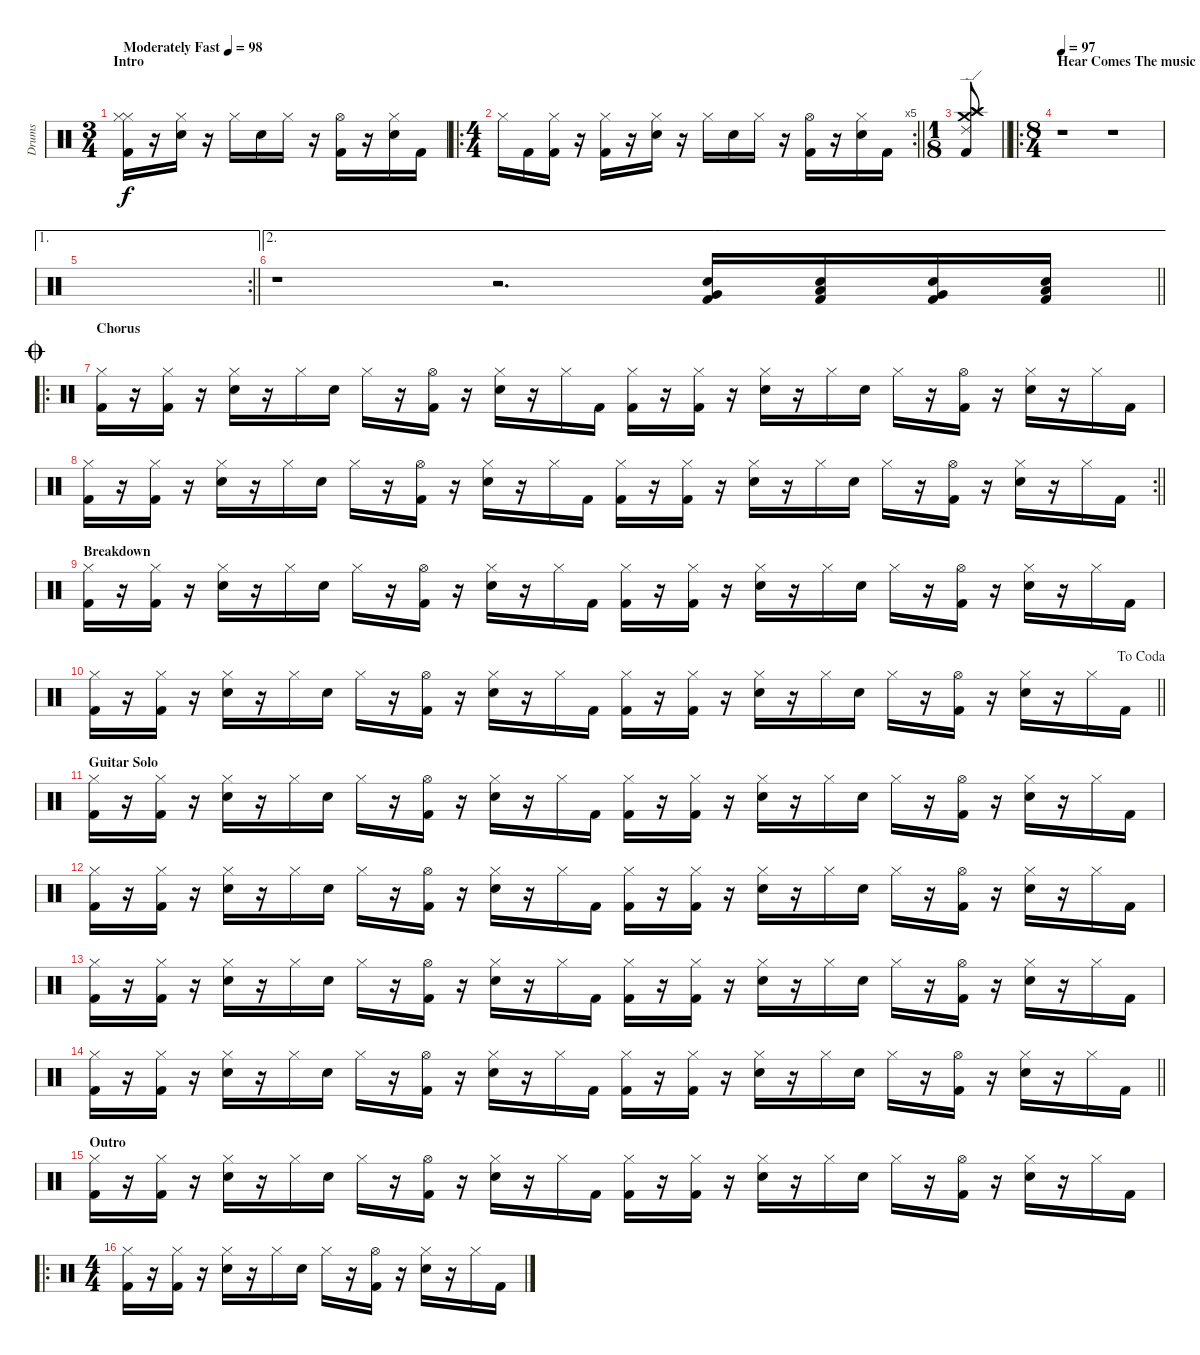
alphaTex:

\track ("Drums" "Drums") {instrument percussion}
\staff {score}
\articulation defaults
\ts (3 4)
\section ("" "Intro")
\tempo (98 "Moderately Fast")
\clef neutral
\ks c
("Kick (hit) 2" "Hi-Hat (closed)" "Hi-Hat (closed)").16{dy f} r.16 ("Electric Snare (hit)" "Hi-Hat (closed)").16 r.16 "Hi-Hat (closed)".16 "Electric Snare (hit)".16 "Hi-Hat (closed)".16 r.16 ("Kick (hit) 2" "Hi-Hat (open)").16 r.16 ("Electric Snare (hit)" "Hi-Hat (closed)").16 "Kick (hit) 2".16 |
\ro
\rc 5
\ts (4 4)
\barLineRight lightlight "Hi-Hat (closed)".16 "Kick (hit) 2".16
("Kick (hit) 2" "Hi-Hat (closed)").16 r.16 ("Kick (hit) 2" "Hi-Hat (closed)").16 r.16 ("Electric Snare (hit)" "Hi-Hat (closed)").16 r.16 "Hi-Hat (closed)".16 "Electric Snare (hit)".16 "Hi-Hat (closed)".16 r.16 ("Kick (hit) 2" "Hi-Hat (open)").16 r.16 ("Electric Snare (hit)" "Hi-Hat (closed)").16 "Kick (hit) 2".16 |
\ts (1 8)
\barLineRight lightlight
("Kick (hit) 2" "Crash high (hit)" "Crash medium (hit)" "Splash (hit)" "Ride (edge) 2").8 |
\ro
\ts (8 4)
\section ("" "Hear Comes The music")
\tempo 97
r.1 r.1 |
\ae 1
\rc 2
\barLineRight lightlight
|
\ae 2
\barLineRight lightlight
r.1 r.2{d} ("Kick (hit) 2" "Electric Snare (hit)" "Very Low Tom (hit)").16 ("Kick (hit) 2" "Electric Snare (hit)" "Low Tom (hit)").16 ("Kick (hit) 2" "Electric Snare (hit)" "Very Low Tom (hit)").16 ("Kick (hit) 2" "Electric Snare (hit)" "Low Tom (hit)").16 |
\ro
\section ("" "Chorus")
\jump coda
("Kick (hit) 2" "Hi-Hat (closed)").16 r.16 ("Kick (hit) 2" "Hi-Hat (closed)").16 r.16 ("Electric Snare (hit)" "Hi-Hat (closed)").16 r.16 "Hi-Hat (closed)".16 "Electric Snare (hit)".16 "Hi-Hat (closed)".16 r.16 ("Kick (hit) 2" "Hi-Hat (open)").16 r.16 ("Electric Snare (hit)" "Hi-Hat (closed)").16 r.16 "Hi-Hat (closed)".16 "Kick (hit) 2".16 ("Kick (hit) 2" "Hi-Hat (closed)").16 r.16 ("Kick (hit) 2" "Hi-Hat (closed)").16 r.16 ("Electric Snare (hit)" "Hi-Hat (closed)").16 r.16 "Hi-Hat (closed)".16 "Electric Snare (hit)".16 "Hi-Hat (closed)".16 r.16 ("Kick (hit) 2" "Hi-Hat (open)").16 r.16 ("Electric Snare (hit)" "Hi-Hat (closed)").16 r.16 "Hi-Hat (closed)".16 "Kick (hit) 2".16 |
\rc 2
\barLineRight lightlight
("Kick (hit) 2" "Hi-Hat (closed)").16 r.16 ("Kick (hit) 2" "Hi-Hat (closed)").16 r.16 ("Electric Snare (hit)" "Hi-Hat (closed)").16 r.16 "Hi-Hat (closed)".16 "Electric Snare (hit)".16 "Hi-Hat (closed)".16 r.16 ("Kick (hit) 2" "Hi-Hat (open)").16 r.16 ("Electric Snare (hit)" "Hi-Hat (closed)").16 r.16 "Hi-Hat (closed)".16 "Kick (hit) 2".16 ("Kick (hit) 2" "Hi-Hat (closed)").16 r.16 ("Kick (hit) 2" "Hi-Hat (closed)").16 r.16 ("Electric Snare (hit)" "Hi-Hat (closed)").16 r.16 "Hi-Hat (closed)".16 "Electric Snare (hit)".16 "Hi-Hat (closed)".16 r.16 ("Kick (hit) 2" "Hi-Hat (open)").16 r.16 ("Electric Snare (hit)" "Hi-Hat (closed)").16 r.16 "Hi-Hat (closed)".16 "Kick (hit) 2".16 |
\section ("" "Breakdown")
("Kick (hit) 2" "Hi-Hat (closed)").16 r.16 ("Kick (hit) 2" "Hi-Hat (closed)").16 r.16 ("Electric Snare (hit)" "Hi-Hat (closed)").16 r.16 "Hi-Hat (closed)".16 "Electric Snare (hit)".16 "Hi-Hat (closed)".16 r.16 ("Kick (hit) 2" "Hi-Hat (open)").16 r.16 ("Electric Snare (hit)" "Hi-Hat (closed)").16 r.16 "Hi-Hat (closed)".16 "Kick (hit) 2".16 ("Kick (hit) 2" "Hi-Hat (closed)").16 r.16 ("Kick (hit) 2" "Hi-Hat (closed)").16 r.16 ("Electric Snare (hit)" "Hi-Hat (closed)").16 r.16 "Hi-Hat (closed)".16 "Electric Snare (hit)".16 "Hi-Hat (closed)".16 r.16 ("Kick (hit) 2" "Hi-Hat (open)").16 r.16 ("Electric Snare (hit)" "Hi-Hat (closed)").16 r.16 "Hi-Hat (closed)".16 "Kick (hit) 2".16 |
\jump dacoda
\barLineRight lightlight
("Kick (hit) 2" "Hi-Hat (closed)").16 r.16 ("Kick (hit) 2" "Hi-Hat (closed)").16 r.16 ("Electric Snare (hit)" "Hi-Hat (closed)").16 r.16 "Hi-Hat (closed)".16 "Electric Snare (hit)".16 "Hi-Hat (closed)".16 r.16 ("Kick (hit) 2" "Hi-Hat (open)").16 r.16 ("Electric Snare (hit)" "Hi-Hat (closed)").16 r.16 "Hi-Hat (closed)".16 "Kick (hit) 2".16 ("Kick (hit) 2" "Hi-Hat (closed)").16 r.16 ("Kick (hit) 2" "Hi-Hat (closed)").16 r.16 ("Electric Snare (hit)" "Hi-Hat (closed)").16 r.16 "Hi-Hat (closed)".16 "Electric Snare (hit)".16 "Hi-Hat (closed)".16 r.16 ("Kick (hit) 2" "Hi-Hat (open)").16 r.16 ("Electric Snare (hit)" "Hi-Hat (closed)").16 r.16 "Hi-Hat (closed)".16 "Kick (hit) 2".16 |
\section ("" "Guitar Solo")
("Kick (hit) 2" "Hi-Hat (closed)").16 r.16 ("Kick (hit) 2" "Hi-Hat (closed)").16 r.16 ("Electric Snare (hit)" "Hi-Hat (closed)").16 r.16 "Hi-Hat (closed)".16 "Electric Snare (hit)".16 "Hi-Hat (closed)".16 r.16 ("Kick (hit) 2" "Hi-Hat (open)").16 r.16 ("Electric Snare (hit)" "Hi-Hat (closed)").16 r.16 "Hi-Hat (closed)".16 "Kick (hit) 2".16 ("Kick (hit) 2" "Hi-Hat (closed)").16 r.16 ("Kick (hit) 2" "Hi-Hat (closed)").16 r.16 ("Electric Snare (hit)" "Hi-Hat (closed)").16 r.16 "Hi-Hat (closed)".16 "Electric Snare (hit)".16 "Hi-Hat (closed)".16 r.16 ("Kick (hit) 2" "Hi-Hat (open)").16 r.16 ("Electric Snare (hit)" "Hi-Hat (closed)").16 r.16 "Hi-Hat (closed)".16 "Kick (hit) 2".16 |
("Kick (hit) 2" "Hi-Hat (closed)").16 r.16 ("Kick (hit) 2" "Hi-Hat (closed)").16 r.16 ("Electric Snare (hit)" "Hi-Hat (closed)").16 r.16 "Hi-Hat (closed)".16 "Electric Snare (hit)".16 "Hi-Hat (closed)".16 r.16 ("Kick (hit) 2" "Hi-Hat (open)").16 r.16 ("Electric Snare (hit)" "Hi-Hat (closed)").16 r.16 "Hi-Hat (closed)".16 "Kick (hit) 2".16 ("Kick (hit) 2" "Hi-Hat (closed)").16 r.16 ("Kick (hit) 2" "Hi-Hat (closed)").16 r.16 ("Electric Snare (hit)" "Hi-Hat (closed)").16 r.16 "Hi-Hat (closed)".16 "Electric Snare (hit)".16 "Hi-Hat (closed)".16 r.16 ("Kick (hit) 2" "Hi-Hat (open)").16 r.16 ("Electric Snare (hit)" "Hi-Hat (closed)").16 r.16 "Hi-Hat (closed)".16 "Kick (hit) 2".16 |
("Kick (hit) 2" "Hi-Hat (closed)").16 r.16 ("Kick (hit) 2" "Hi-Hat (closed)").16 r.16 ("Electric Snare (hit)" "Hi-Hat (closed)").16 r.16 "Hi-Hat (closed)".16 "Electric Snare (hit)".16 "Hi-Hat (closed)".16 r.16 ("Kick (hit) 2" "Hi-Hat (open)").16 r.16 ("Electric Snare (hit)" "Hi-Hat (closed)").16 r.16 "Hi-Hat (closed)".16 "Kick (hit) 2".16 ("Kick (hit) 2" "Hi-Hat (closed)").16 r.16 ("Kick (hit) 2" "Hi-Hat (closed)").16 r.16 ("Electric Snare (hit)" "Hi-Hat (closed)").16 r.16 "Hi-Hat (closed)".16 "Electric Snare (hit)".16 "Hi-Hat (closed)".16 r.16 ("Kick (hit) 2" "Hi-Hat (open)").16 r.16 ("Electric Snare (hit)" "Hi-Hat (closed)").16 r.16 "Hi-Hat (closed)".16 "Kick (hit) 2".16 |
\barLineRight lightlight
("Kick (hit) 2" "Hi-Hat (closed)").16 r.16 ("Kick (hit) 2" "Hi-Hat (closed)").16 r.16 ("Electric Snare (hit)" "Hi-Hat (closed)").16 r.16 "Hi-Hat (closed)".16 "Electric Snare (hit)".16 "Hi-Hat (closed)".16 r.16 ("Kick (hit) 2" "Hi-Hat (open)").16 r.16 ("Electric Snare (hit)" "Hi-Hat (closed)").16 r.16 "Hi-Hat (closed)".16 "Kick (hit) 2".16 ("Kick (hit) 2" "Hi-Hat (closed)").16 r.16 ("Kick (hit) 2" "Hi-Hat (closed)").16 r.16 ("Electric Snare (hit)" "Hi-Hat (closed)").16 r.16 "Hi-Hat (closed)".16 "Electric Snare (hit)".16 "Hi-Hat (closed)".16 r.16 ("Kick (hit) 2" "Hi-Hat (open)").16 r.16 ("Electric Snare (hit)" "Hi-Hat (closed)").16 r.16 "Hi-Hat (closed)".16 "Kick (hit) 2".16 |
\section ("" "Outro")
("Kick (hit) 2" "Hi-Hat (closed)").16 r.16 ("Kick (hit) 2" "Hi-Hat (closed)").16 r.16 ("Electric Snare (hit)" "Hi-Hat (closed)").16 r.16 "Hi-Hat (closed)".16 "Electric Snare (hit)".16 "Hi-Hat (closed)".16 r.16 ("Kick (hit) 2" "Hi-Hat (open)").16 r.16 ("Electric Snare (hit)" "Hi-Hat (closed)").16 r.16 "Hi-Hat (closed)".16 "Kick (hit) 2".16 ("Kick (hit) 2" "Hi-Hat (closed)").16 r.16 ("Kick (hit) 2" "Hi-Hat (closed)").16 r.16 ("Electric Snare (hit)" "Hi-Hat (closed)").16 r.16 "Hi-Hat (closed)".16 "Electric Snare (hit)".16 "Hi-Hat (closed)".16 r.16 ("Kick (hit) 2" "Hi-Hat (open)").16 r.16 ("Electric Snare (hit)" "Hi-Hat (closed)").16 r.16 "Hi-Hat (closed)".16 "Kick (hit) 2".16 |
\ro
\ts (4 4)
("Kick (hit) 2" "Hi-Hat (closed)").16 r.16 ("Kick (hit) 2" "Hi-Hat (closed)").16 r.16 ("Electric Snare (hit)" "Hi-Hat (closed)").16 r.16 "Hi-Hat (closed)".16 "Electric Snare (hit)".16 "Hi-Hat (closed)".16 r.16 ("Kick (hit) 2" "Hi-Hat (open)").16 r.16 ("Electric Snare (hit)" "Hi-Hat (closed)").16 r.16 "Hi-Hat (closed)".16 "Kick (hit) 2".16
